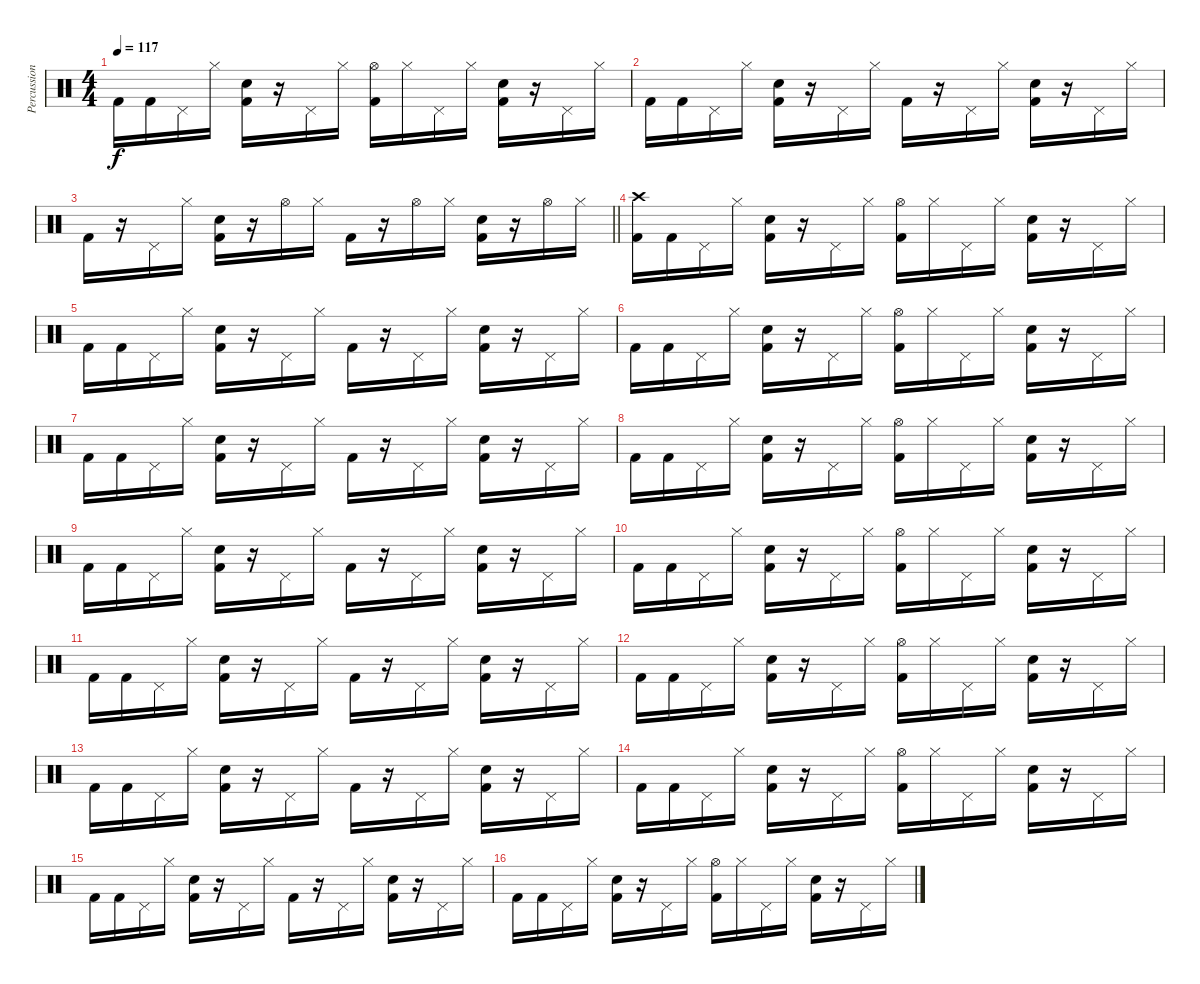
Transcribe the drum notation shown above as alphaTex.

\track ("Percussion" "Percussion") {instrument percussion}
\staff {score}
\articulation defaults
\ts (4 4)
\tempo 117
\clef neutral
\ks c "Kick (hit) 2".16{dy f} "Kick (hit) 2".16 "Pedal Hi-Hat (hit)".16 "Hi-Hat (closed)".16
("Snare (hit) 2" "Kick (hit) 2").16 r.16 "Pedal Hi-Hat (hit)".16 "Hi-Hat (closed)".16 ("Hi-Hat (open)" "Kick (hit) 2").16 "Hi-Hat (closed)".16 "Pedal Hi-Hat (hit)".16 "Hi-Hat (closed)".16 ("Snare (hit) 2" "Kick (hit) 2").16 r.16 "Pedal Hi-Hat (hit)".16 "Hi-Hat (closed)".16 |
"Kick (hit) 2".16 "Kick (hit) 2".16 "Pedal Hi-Hat (hit)".16 "Hi-Hat (closed)".16 ("Snare (hit) 2" "Kick (hit) 2").16 r.16 "Pedal Hi-Hat (hit)".16 "Hi-Hat (closed)".16 "Kick (hit) 2".16 r.16 "Pedal Hi-Hat (hit)".16 "Hi-Hat (closed)".16 ("Snare (hit) 2" "Kick (hit) 2").16 r.16 "Pedal Hi-Hat (hit)".16 "Hi-Hat (closed)".16 |
\barLineRight lightlight "Kick (hit) 2".16
r.16 "Pedal Hi-Hat (hit)".16 "Hi-Hat (closed)".16 ("Snare (hit) 2" "Kick (hit) 2").16 r.16 "Hi-Hat (open)".16 "Hi-Hat (closed)".16 "Kick (hit) 2".16 r.16 "Hi-Hat (open)".16 "Hi-Hat (closed)".16 ("Snare (hit) 2" "Kick (hit) 2").16 r.16 "Hi-Hat (open)".16 "Hi-Hat (closed)".16 |
("Crash high (hit)" "Kick (hit) 2").16 "Kick (hit) 2".16 "Pedal Hi-Hat (hit)".16 "Hi-Hat (closed)".16 ("Snare (hit) 2" "Kick (hit) 2").16 r.16 "Pedal Hi-Hat (hit)".16 "Hi-Hat (closed)".16 ("Hi-Hat (open)" "Kick (hit) 2").16 "Hi-Hat (closed)".16 "Pedal Hi-Hat (hit)".16 "Hi-Hat (closed)".16 ("Snare (hit) 2" "Kick (hit) 2").16 r.16 "Pedal Hi-Hat (hit)".16 "Hi-Hat (closed)".16 |
"Kick (hit) 2".16 "Kick (hit) 2".16 "Pedal Hi-Hat (hit)".16 "Hi-Hat (closed)".16 ("Snare (hit) 2" "Kick (hit) 2").16 r.16 "Pedal Hi-Hat (hit)".16 "Hi-Hat (closed)".16 "Kick (hit) 2".16 r.16 "Pedal Hi-Hat (hit)".16 "Hi-Hat (closed)".16 ("Snare (hit) 2" "Kick (hit) 2").16 r.16 "Pedal Hi-Hat (hit)".16 "Hi-Hat (closed)".16 |
"Kick (hit) 2".16 "Kick (hit) 2".16 "Pedal Hi-Hat (hit)".16 "Hi-Hat (closed)".16 ("Snare (hit) 2" "Kick (hit) 2").16 r.16 "Pedal Hi-Hat (hit)".16 "Hi-Hat (closed)".16 ("Hi-Hat (open)" "Kick (hit) 2").16 "Hi-Hat (closed)".16 "Pedal Hi-Hat (hit)".16 "Hi-Hat (closed)".16 ("Snare (hit) 2" "Kick (hit) 2").16 r.16 "Pedal Hi-Hat (hit)".16 "Hi-Hat (closed)".16 |
"Kick (hit) 2".16 "Kick (hit) 2".16 "Pedal Hi-Hat (hit)".16 "Hi-Hat (closed)".16 ("Snare (hit) 2" "Kick (hit) 2").16 r.16 "Pedal Hi-Hat (hit)".16 "Hi-Hat (closed)".16 "Kick (hit) 2".16 r.16 "Pedal Hi-Hat (hit)".16 "Hi-Hat (closed)".16 ("Snare (hit) 2" "Kick (hit) 2").16 r.16 "Pedal Hi-Hat (hit)".16 "Hi-Hat (closed)".16 |
"Kick (hit) 2".16 "Kick (hit) 2".16 "Pedal Hi-Hat (hit)".16 "Hi-Hat (closed)".16 ("Snare (hit) 2" "Kick (hit) 2").16 r.16 "Pedal Hi-Hat (hit)".16 "Hi-Hat (closed)".16 ("Hi-Hat (open)" "Kick (hit) 2").16 "Hi-Hat (closed)".16 "Pedal Hi-Hat (hit)".16 "Hi-Hat (closed)".16 ("Snare (hit) 2" "Kick (hit) 2").16 r.16 "Pedal Hi-Hat (hit)".16 "Hi-Hat (closed)".16 |
"Kick (hit) 2".16 "Kick (hit) 2".16 "Pedal Hi-Hat (hit)".16 "Hi-Hat (closed)".16 ("Snare (hit) 2" "Kick (hit) 2").16 r.16 "Pedal Hi-Hat (hit)".16 "Hi-Hat (closed)".16 "Kick (hit) 2".16 r.16 "Pedal Hi-Hat (hit)".16 "Hi-Hat (closed)".16 ("Snare (hit) 2" "Kick (hit) 2").16 r.16 "Pedal Hi-Hat (hit)".16 "Hi-Hat (closed)".16 |
"Kick (hit) 2".16 "Kick (hit) 2".16 "Pedal Hi-Hat (hit)".16 "Hi-Hat (closed)".16 ("Snare (hit) 2" "Kick (hit) 2").16 r.16 "Pedal Hi-Hat (hit)".16 "Hi-Hat (closed)".16 ("Hi-Hat (open)" "Kick (hit) 2").16 "Hi-Hat (closed)".16 "Pedal Hi-Hat (hit)".16 "Hi-Hat (closed)".16 ("Snare (hit) 2" "Kick (hit) 2").16 r.16 "Pedal Hi-Hat (hit)".16 "Hi-Hat (closed)".16 |
"Kick (hit) 2".16 "Kick (hit) 2".16 "Pedal Hi-Hat (hit)".16 "Hi-Hat (closed)".16 ("Snare (hit) 2" "Kick (hit) 2").16 r.16 "Pedal Hi-Hat (hit)".16 "Hi-Hat (closed)".16 "Kick (hit) 2".16 r.16 "Pedal Hi-Hat (hit)".16 "Hi-Hat (closed)".16 ("Snare (hit) 2" "Kick (hit) 2").16 r.16 "Pedal Hi-Hat (hit)".16 "Hi-Hat (closed)".16 |
"Kick (hit) 2".16 "Kick (hit) 2".16 "Pedal Hi-Hat (hit)".16 "Hi-Hat (closed)".16 ("Snare (hit) 2" "Kick (hit) 2").16 r.16 "Pedal Hi-Hat (hit)".16 "Hi-Hat (closed)".16 ("Hi-Hat (open)" "Kick (hit) 2").16 "Hi-Hat (closed)".16 "Pedal Hi-Hat (hit)".16 "Hi-Hat (closed)".16 ("Snare (hit) 2" "Kick (hit) 2").16 r.16 "Pedal Hi-Hat (hit)".16 "Hi-Hat (closed)".16 |
"Kick (hit) 2".16 "Kick (hit) 2".16 "Pedal Hi-Hat (hit)".16 "Hi-Hat (closed)".16 ("Snare (hit) 2" "Kick (hit) 2").16 r.16 "Pedal Hi-Hat (hit)".16 "Hi-Hat (closed)".16 "Kick (hit) 2".16 r.16 "Pedal Hi-Hat (hit)".16 "Hi-Hat (closed)".16 ("Snare (hit) 2" "Kick (hit) 2").16 r.16 "Pedal Hi-Hat (hit)".16 "Hi-Hat (closed)".16 |
"Kick (hit) 2".16 "Kick (hit) 2".16 "Pedal Hi-Hat (hit)".16 "Hi-Hat (closed)".16 ("Snare (hit) 2" "Kick (hit) 2").16 r.16 "Pedal Hi-Hat (hit)".16 "Hi-Hat (closed)".16 ("Hi-Hat (open)" "Kick (hit) 2").16 "Hi-Hat (closed)".16 "Pedal Hi-Hat (hit)".16 "Hi-Hat (closed)".16 ("Snare (hit) 2" "Kick (hit) 2").16 r.16 "Pedal Hi-Hat (hit)".16 "Hi-Hat (closed)".16 |
"Kick (hit) 2".16 "Kick (hit) 2".16 "Pedal Hi-Hat (hit)".16 "Hi-Hat (closed)".16 ("Snare (hit) 2" "Kick (hit) 2").16 r.16 "Pedal Hi-Hat (hit)".16 "Hi-Hat (closed)".16 "Kick (hit) 2".16 r.16 "Pedal Hi-Hat (hit)".16 "Hi-Hat (closed)".16 ("Snare (hit) 2" "Kick (hit) 2").16 r.16 "Pedal Hi-Hat (hit)".16 "Hi-Hat (closed)".16 |
"Kick (hit) 2".16 "Kick (hit) 2".16 "Pedal Hi-Hat (hit)".16 "Hi-Hat (closed)".16 ("Snare (hit) 2" "Kick (hit) 2").16 r.16 "Pedal Hi-Hat (hit)".16 "Hi-Hat (closed)".16 ("Hi-Hat (open)" "Kick (hit) 2").16 "Hi-Hat (closed)".16 "Pedal Hi-Hat (hit)".16 "Hi-Hat (closed)".16 ("Snare (hit) 2" "Kick (hit) 2").16 r.16 "Pedal Hi-Hat (hit)".16 "Hi-Hat (closed)".16
